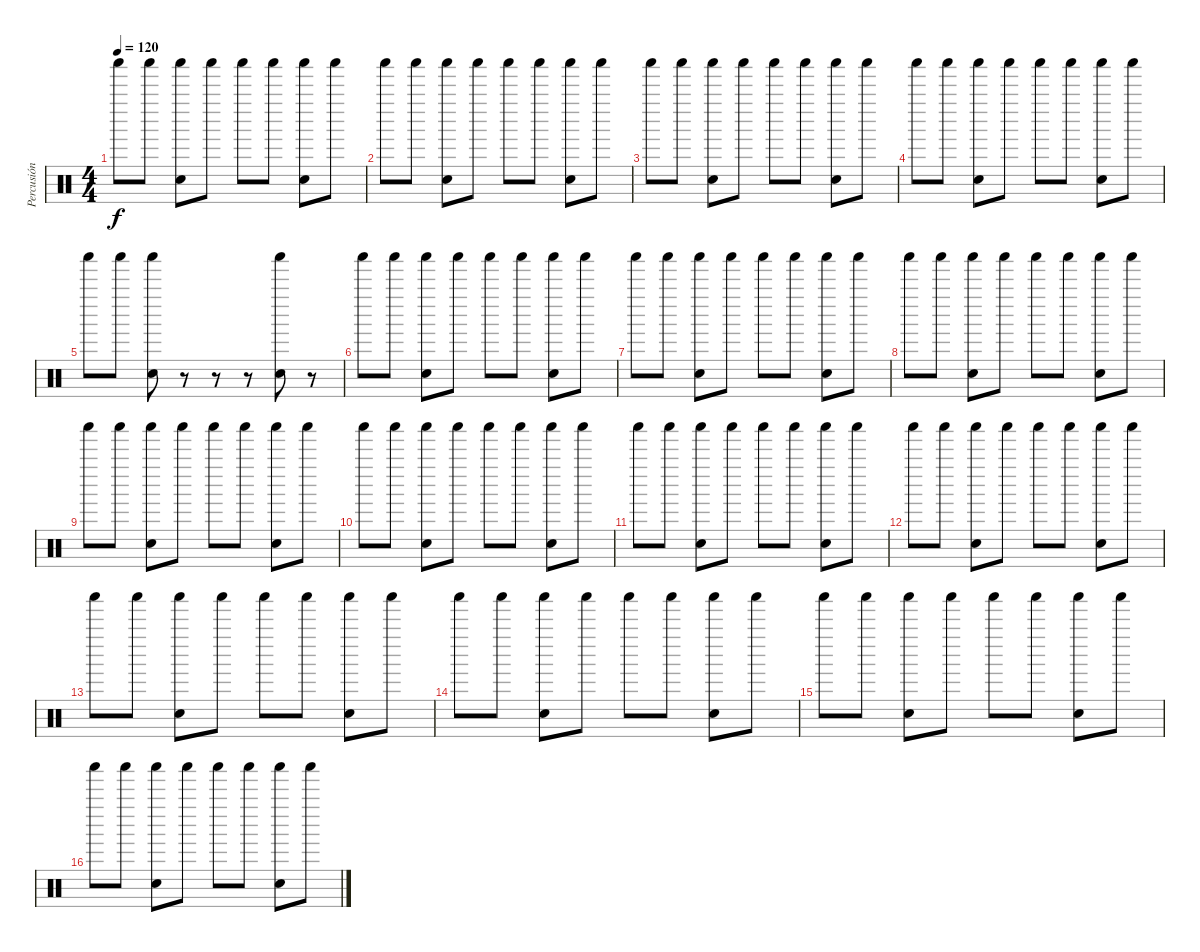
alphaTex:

\track ("Percusión" "Percusión") {instrument percussion}
\staff {score}
\articulation defaults
\ts (4 4)
\tempo 120
\clef neutral
\ks c "Shaker (hit)".8{dy f} "Shaker (hit)".8
("Shaker (hit)" "Hand Clap (hit)").8 "Shaker (hit)".8 "Shaker (hit)".8 "Shaker (hit)".8 ("Shaker (hit)" "Hand Clap (hit)").8 "Shaker (hit)".8 |
"Shaker (hit)".8 "Shaker (hit)".8 ("Shaker (hit)" "Hand Clap (hit)").8 "Shaker (hit)".8 "Shaker (hit)".8 "Shaker (hit)".8 ("Shaker (hit)" "Hand Clap (hit)").8 "Shaker (hit)".8 |
"Shaker (hit)".8 "Shaker (hit)".8 ("Shaker (hit)" "Hand Clap (hit)").8 "Shaker (hit)".8 "Shaker (hit)".8 "Shaker (hit)".8 ("Shaker (hit)" "Hand Clap (hit)").8 "Shaker (hit)".8 |
"Shaker (hit)".8 "Shaker (hit)".8 ("Shaker (hit)" "Hand Clap (hit)").8 "Shaker (hit)".8 "Shaker (hit)".8 "Shaker (hit)".8 ("Shaker (hit)" "Hand Clap (hit)").8 "Shaker (hit)".8 |
"Shaker (hit)".8 "Shaker (hit)".8 ("Shaker (hit)" "Hand Clap (hit)").8 r.8 r.8 r.8 ("Shaker (hit)" "Hand Clap (hit)").8 r.8 |
"Shaker (hit)".8 "Shaker (hit)".8 ("Shaker (hit)" "Hand Clap (hit)").8 "Shaker (hit)".8 "Shaker (hit)".8 "Shaker (hit)".8 ("Shaker (hit)" "Hand Clap (hit)").8 "Shaker (hit)".8 |
"Shaker (hit)".8 "Shaker (hit)".8 ("Shaker (hit)" "Hand Clap (hit)").8 "Shaker (hit)".8 "Shaker (hit)".8 "Shaker (hit)".8 ("Shaker (hit)" "Hand Clap (hit)").8 "Shaker (hit)".8 |
"Shaker (hit)".8 "Shaker (hit)".8 ("Shaker (hit)" "Hand Clap (hit)").8 "Shaker (hit)".8 "Shaker (hit)".8 "Shaker (hit)".8 ("Shaker (hit)" "Hand Clap (hit)").8 "Shaker (hit)".8 |
"Shaker (hit)".8 "Shaker (hit)".8 ("Shaker (hit)" "Hand Clap (hit)").8 "Shaker (hit)".8 "Shaker (hit)".8 "Shaker (hit)".8 ("Shaker (hit)" "Hand Clap (hit)").8 "Shaker (hit)".8 |
"Shaker (hit)".8 "Shaker (hit)".8 ("Shaker (hit)" "Hand Clap (hit)").8 "Shaker (hit)".8 "Shaker (hit)".8 "Shaker (hit)".8 ("Shaker (hit)" "Hand Clap (hit)").8 "Shaker (hit)".8 |
"Shaker (hit)".8 "Shaker (hit)".8 ("Shaker (hit)" "Hand Clap (hit)").8 "Shaker (hit)".8 "Shaker (hit)".8 "Shaker (hit)".8 ("Shaker (hit)" "Hand Clap (hit)").8 "Shaker (hit)".8 |
"Shaker (hit)".8 "Shaker (hit)".8 ("Shaker (hit)" "Hand Clap (hit)").8 "Shaker (hit)".8 "Shaker (hit)".8 "Shaker (hit)".8 ("Shaker (hit)" "Hand Clap (hit)").8 "Shaker (hit)".8 |
"Shaker (hit)".8 "Shaker (hit)".8 ("Shaker (hit)" "Hand Clap (hit)").8 "Shaker (hit)".8 "Shaker (hit)".8 "Shaker (hit)".8 ("Shaker (hit)" "Hand Clap (hit)").8 "Shaker (hit)".8 |
"Shaker (hit)".8 "Shaker (hit)".8 ("Shaker (hit)" "Hand Clap (hit)").8 "Shaker (hit)".8 "Shaker (hit)".8 "Shaker (hit)".8 ("Shaker (hit)" "Hand Clap (hit)").8 "Shaker (hit)".8 |
"Shaker (hit)".8 "Shaker (hit)".8 ("Shaker (hit)" "Hand Clap (hit)").8 "Shaker (hit)".8 "Shaker (hit)".8 "Shaker (hit)".8 ("Shaker (hit)" "Hand Clap (hit)").8 "Shaker (hit)".8 |
"Shaker (hit)".8 "Shaker (hit)".8 ("Shaker (hit)" "Hand Clap (hit)").8 "Shaker (hit)".8 "Shaker (hit)".8 "Shaker (hit)".8 ("Shaker (hit)" "Hand Clap (hit)").8 "Shaker (hit)".8
